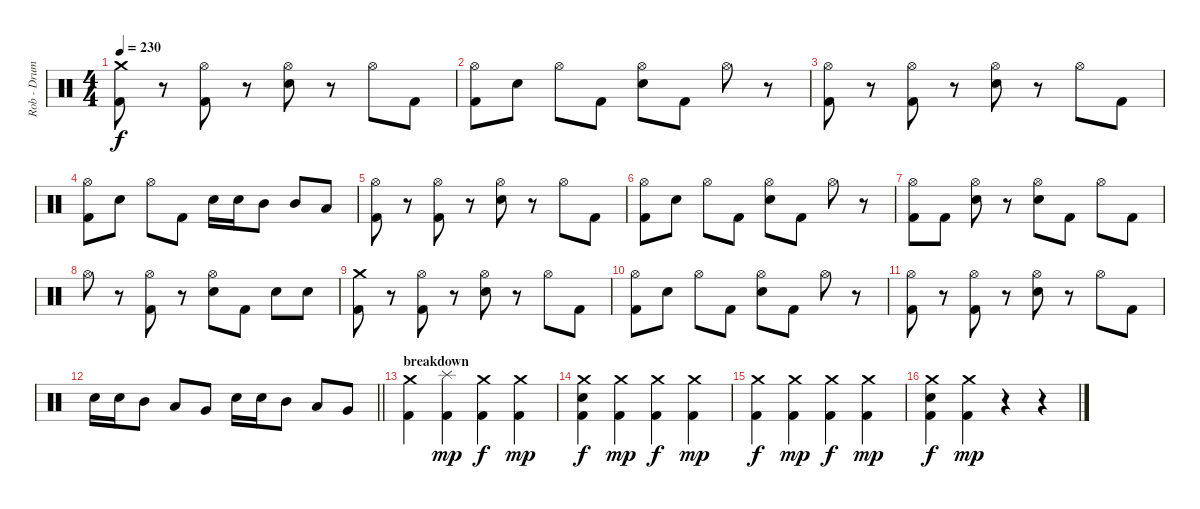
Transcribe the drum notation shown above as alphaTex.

\track ("Rob - Drums" "Rob - Drum") {instrument percussion}
\staff {score}
\articulation defaults
\ts (4 4)
\tempo 230
\clef neutral
\ks c
("Crash medium (hit)" "Kick (hit) 2").8{dy f} r.8 ("Hi-Hat (open)" "Kick (hit) 2").8 r.8 ("Hi-Hat (open)" "Electric Snare (hit)").8 r.8 "Hi-Hat (open)".8 "Kick (hit) 2".8 |
("Hi-Hat (open)" "Kick (hit) 2").8 "Electric Snare (hit)".8 "Hi-Hat (open)".8 "Kick (hit) 2".8 ("Hi-Hat (open)" "Electric Snare (hit)").8 "Kick (hit) 2".8 "Hi-Hat (open)".8 r.8 |
("Hi-Hat (open)" "Kick (hit) 2").8 r.8 ("Hi-Hat (open)" "Kick (hit) 2").8 r.8 ("Hi-Hat (open)" "Electric Snare (hit)").8 r.8 "Hi-Hat (open)".8 "Kick (hit) 2".8 |
("Hi-Hat (open)" "Kick (hit) 2").8 "Electric Snare (hit)".8 "Hi-Hat (open)".8 "Kick (hit) 2".8 "Electric Snare (hit)".16 "Electric Snare (hit)".16 "Mid Tom (hit)".8 "Mid Tom (hit)".8 "Low Tom (hit)".8 |
("Hi-Hat (open)" "Kick (hit) 2").8 r.8 ("Hi-Hat (open)" "Kick (hit) 2").8 r.8 ("Hi-Hat (open)" "Electric Snare (hit)").8 r.8 "Hi-Hat (open)".8 "Kick (hit) 2".8 |
("Hi-Hat (open)" "Kick (hit) 2").8 "Electric Snare (hit)".8 "Hi-Hat (open)".8 "Kick (hit) 2".8 ("Hi-Hat (open)" "Electric Snare (hit)").8 "Kick (hit) 2".8 "Hi-Hat (open)".8 r.8 |
("Hi-Hat (open)" "Kick (hit) 2").8 "Kick (hit) 2".8 ("Hi-Hat (open)" "Electric Snare (hit)").8 r.8 ("Hi-Hat (open)" "Electric Snare (hit)").8 "Kick (hit) 2".8 "Hi-Hat (open)".8 "Kick (hit) 2".8 |
"Hi-Hat (open)".8 r.8 ("Hi-Hat (open)" "Kick (hit) 2").8 r.8 ("Hi-Hat (open)" "Electric Snare (hit)").8 "Kick (hit) 2".8 "Electric Snare (hit)".8 "Electric Snare (hit)".8 |
("Crash medium (hit)" "Kick (hit) 2").8 r.8 ("Hi-Hat (open)" "Kick (hit) 2").8 r.8 ("Hi-Hat (open)" "Electric Snare (hit)").8 r.8 "Hi-Hat (open)".8 "Kick (hit) 2".8 |
("Hi-Hat (open)" "Kick (hit) 2").8 "Electric Snare (hit)".8 "Hi-Hat (open)".8 "Kick (hit) 2".8 ("Hi-Hat (open)" "Electric Snare (hit)").8 "Kick (hit) 2".8 "Hi-Hat (open)".8 r.8 |
("Hi-Hat (open)" "Kick (hit) 2").8 r.8 ("Hi-Hat (open)" "Kick (hit) 2").8 r.8 ("Hi-Hat (open)" "Electric Snare (hit)").8 r.8 "Hi-Hat (open)".8 "Kick (hit) 2".8 |
\barLineRight lightlight "Electric Snare (hit)".16 "Electric Snare (hit)".16 "Mid Tom (hit)".8 "Low Tom (hit)".8 "Very Low Tom (hit)".8 "Electric Snare (hit)".16 "Electric Snare (hit)".16 "Mid Tom (hit)".8 "Low Tom (hit)".8 "Very Low Tom (hit)".8
|
\section ("" "breakdown")
("Crash medium (hit)" "Kick (hit) 2").4 ("Splash (hit)" "Kick (hit) 2").4{dy mp} ("Crash medium (hit)" "Kick (hit) 2").4{dy f} ("Crash medium (hit)" "Kick (hit) 2").4{dy mp} |
("Crash medium (hit)" "Electric Snare (hit)" "Kick (hit) 2").4{dy f} ("Crash medium (hit)" "Kick (hit) 2").4{dy mp} ("Crash medium (hit)" "Kick (hit) 2").4{dy f} ("Crash medium (hit)" "Kick (hit) 2").4{dy mp} |
("Crash medium (hit)" "Kick (hit) 2").4{dy f} ("Crash medium (hit)" "Kick (hit) 2").4{dy mp} ("Crash medium (hit)" "Kick (hit) 2").4{dy f} ("Crash medium (hit)" "Kick (hit) 2").4{dy mp} |
("Crash medium (hit)" "Electric Snare (hit)" "Kick (hit) 2").4{dy f} ("Crash medium (hit)" "Kick (hit) 2").4{dy mp} r.4 r.4
